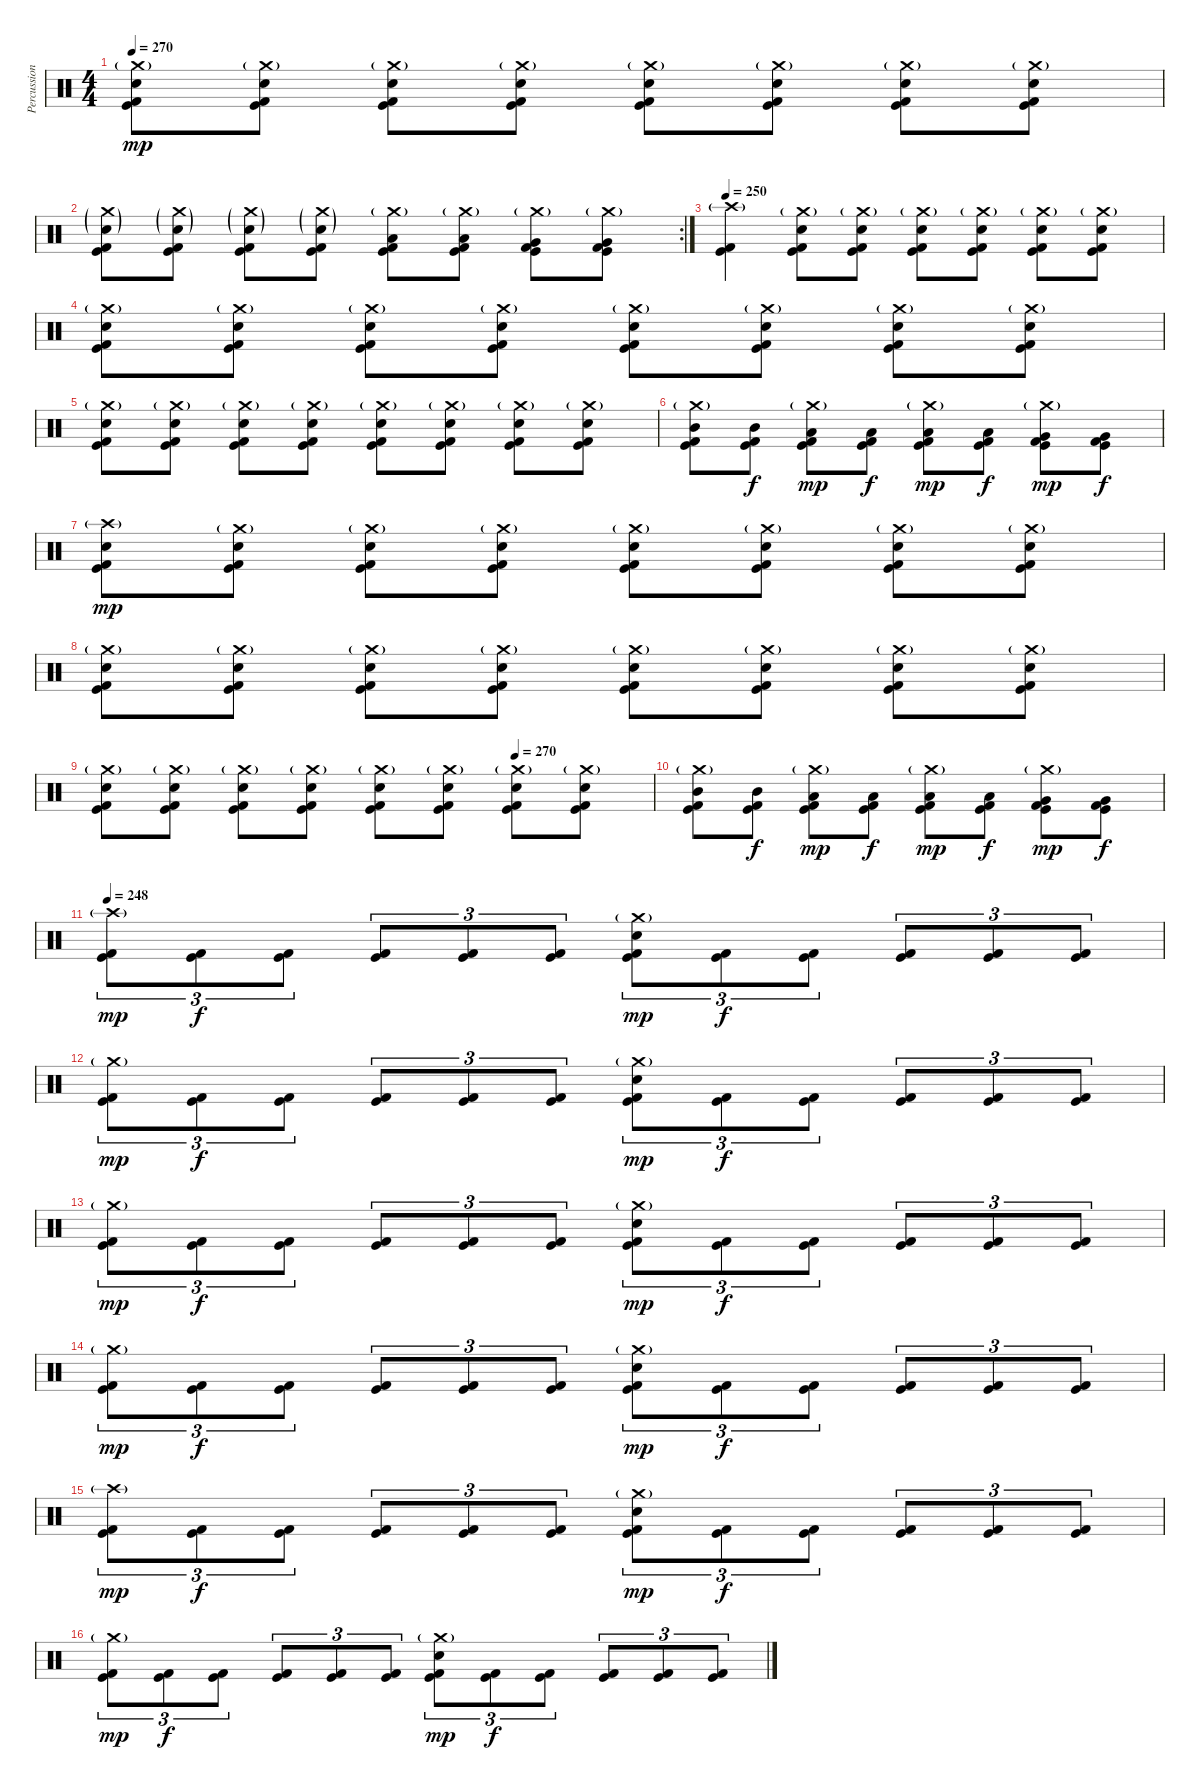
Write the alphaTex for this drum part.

\track ("Percussion" "Percussion") {instrument percussion}
\staff {score}
\articulation defaults
\ts (4 4)
\tempo 270
\clef neutral
\ks c
("Crash medium (hit)"{g} "Electric Snare (hit)" "Kick (hit)" "Kick (hit) 2").8{dy mp} ("Crash medium (hit)"{g} "Electric Snare (hit)" "Kick (hit)" "Kick (hit) 2").8 ("Crash medium (hit)"{g} "Electric Snare (hit)" "Kick (hit)" "Kick (hit) 2").8 ("Crash medium (hit)"{g} "Electric Snare (hit)" "Kick (hit)" "Kick (hit) 2").8 ("Crash medium (hit)"{g} "Electric Snare (hit)" "Kick (hit)" "Kick (hit) 2").8 ("Crash medium (hit)"{g} "Electric Snare (hit)" "Kick (hit)" "Kick (hit) 2").8 ("Crash medium (hit)"{g} "Electric Snare (hit)" "Kick (hit)" "Kick (hit) 2").8 ("Crash medium (hit)"{g} "Electric Snare (hit)" "Kick (hit)" "Kick (hit) 2").8 |
\rc 2
("Crash medium (hit)"{g} "Electric Snare (hit)"{g} "Kick (hit)" "Kick (hit) 2").8 ("Crash medium (hit)"{g} "Electric Snare (hit)"{g} "Kick (hit)" "Kick (hit) 2").8 ("Crash medium (hit)"{g} "Electric Snare (hit)"{g} "Kick (hit)" "Kick (hit) 2").8 ("Crash medium (hit)"{g} "Electric Snare (hit)"{g} "Kick (hit)" "Kick (hit) 2").8 ("Crash medium (hit)"{g} "Low Tom (hit)" "Kick (hit)" "Kick (hit) 2").8 ("Crash medium (hit)"{g} "Low Tom (hit)" "Kick (hit)" "Kick (hit) 2").8 ("Crash medium (hit)"{g} "Very Low Tom (hit)" "Kick (hit)" "Kick (hit) 2").8 ("Crash medium (hit)"{g} "Very Low Tom (hit)" "Kick (hit)" "Kick (hit) 2").8 |
\tempo 250
("Crash high (hit)"{g} "Kick (hit)" "Kick (hit) 2").4 ("Crash medium (hit)"{g} "Electric Snare (hit)" "Kick (hit)" "Kick (hit) 2").8 ("Crash medium (hit)"{g} "Electric Snare (hit)" "Kick (hit)" "Kick (hit) 2").8 ("Crash medium (hit)"{g} "Electric Snare (hit)" "Kick (hit)" "Kick (hit) 2").8 ("Crash medium (hit)"{g} "Electric Snare (hit)" "Kick (hit)" "Kick (hit) 2").8 ("Crash medium (hit)"{g} "Electric Snare (hit)" "Kick (hit)" "Kick (hit) 2").8 ("Crash medium (hit)"{g} "Electric Snare (hit)" "Kick (hit)" "Kick (hit) 2").8 |
("Crash medium (hit)"{g} "Electric Snare (hit)" "Kick (hit)" "Kick (hit) 2").8 ("Crash medium (hit)"{g} "Electric Snare (hit)" "Kick (hit)" "Kick (hit) 2").8 ("Crash medium (hit)"{g} "Electric Snare (hit)" "Kick (hit)" "Kick (hit) 2").8 ("Crash medium (hit)"{g} "Electric Snare (hit)" "Kick (hit)" "Kick (hit) 2").8 ("Crash medium (hit)"{g} "Electric Snare (hit)" "Kick (hit)" "Kick (hit) 2").8 ("Crash medium (hit)"{g} "Electric Snare (hit)" "Kick (hit)" "Kick (hit) 2").8 ("Crash medium (hit)"{g} "Electric Snare (hit)" "Kick (hit)" "Kick (hit) 2").8 ("Crash medium (hit)"{g} "Electric Snare (hit)" "Kick (hit)" "Kick (hit) 2").8 |
("Crash medium (hit)"{g} "Electric Snare (hit)" "Kick (hit)" "Kick (hit) 2").8 ("Crash medium (hit)"{g} "Electric Snare (hit)" "Kick (hit)" "Kick (hit) 2").8 ("Crash medium (hit)"{g} "Electric Snare (hit)" "Kick (hit)" "Kick (hit) 2").8 ("Crash medium (hit)"{g} "Electric Snare (hit)" "Kick (hit)" "Kick (hit) 2").8 ("Crash medium (hit)"{g} "Electric Snare (hit)" "Kick (hit)" "Kick (hit) 2").8 ("Crash medium (hit)"{g} "Electric Snare (hit)" "Kick (hit)" "Kick (hit) 2").8 ("Crash medium (hit)"{g} "Electric Snare (hit)" "Kick (hit)" "Kick (hit) 2").8 ("Crash medium (hit)"{g} "Electric Snare (hit)" "Kick (hit)" "Kick (hit) 2").8 |
("Crash medium (hit)"{g} "Mid Tom (hit)" "Kick (hit)" "Kick (hit) 2").8 ("Mid Tom (hit)" "Kick (hit)" "Kick (hit) 2").8{dy f} ("Crash medium (hit)"{g} "Low Tom (hit)" "Kick (hit)" "Kick (hit) 2").8{dy mp} ("Low Tom (hit)" "Kick (hit)" "Kick (hit) 2").8{dy f} ("Crash medium (hit)"{g} "Low Floor Tom (hit)" "Kick (hit)" "Kick (hit) 2").8{dy mp} ("Low Floor Tom (hit)" "Kick (hit)" "Kick (hit) 2").8{dy f} ("Crash medium (hit)"{g} "Very Low Tom (hit)" "Kick (hit)" "Kick (hit) 2").8{dy mp} ("Very Low Tom (hit)" "Kick (hit)" "Kick (hit) 2").8{dy f} |
("Crash high (hit)"{g} "Electric Snare (hit)" "Kick (hit)" "Kick (hit) 2").8{dy mp} ("Crash medium (hit)"{g} "Electric Snare (hit)" "Kick (hit)" "Kick (hit) 2").8 ("Crash medium (hit)"{g} "Electric Snare (hit)" "Kick (hit)" "Kick (hit) 2").8 ("Crash medium (hit)"{g} "Electric Snare (hit)" "Kick (hit)" "Kick (hit) 2").8 ("Crash medium (hit)"{g} "Electric Snare (hit)" "Kick (hit)" "Kick (hit) 2").8 ("Crash medium (hit)"{g} "Electric Snare (hit)" "Kick (hit)" "Kick (hit) 2").8 ("Crash medium (hit)"{g} "Electric Snare (hit)" "Kick (hit)" "Kick (hit) 2").8 ("Crash medium (hit)"{g} "Electric Snare (hit)" "Kick (hit)" "Kick (hit) 2").8 |
("Crash medium (hit)"{g} "Electric Snare (hit)" "Kick (hit)" "Kick (hit) 2").8 ("Crash medium (hit)"{g} "Electric Snare (hit)" "Kick (hit)" "Kick (hit) 2").8 ("Crash medium (hit)"{g} "Electric Snare (hit)" "Kick (hit)" "Kick (hit) 2").8 ("Crash medium (hit)"{g} "Electric Snare (hit)" "Kick (hit)" "Kick (hit) 2").8 ("Crash medium (hit)"{g} "Electric Snare (hit)" "Kick (hit)" "Kick (hit) 2").8 ("Crash medium (hit)"{g} "Electric Snare (hit)" "Kick (hit)" "Kick (hit) 2").8 ("Crash medium (hit)"{g} "Electric Snare (hit)" "Kick (hit)" "Kick (hit) 2").8 ("Crash medium (hit)"{g} "Electric Snare (hit)" "Kick (hit)" "Kick (hit) 2").8 |
\tempo (270 0.75)
("Crash medium (hit)"{g} "Electric Snare (hit)" "Kick (hit)" "Kick (hit) 2").8 ("Crash medium (hit)"{g} "Electric Snare (hit)" "Kick (hit)" "Kick (hit) 2").8 ("Crash medium (hit)"{g} "Electric Snare (hit)" "Kick (hit)" "Kick (hit) 2").8 ("Crash medium (hit)"{g} "Electric Snare (hit)" "Kick (hit)" "Kick (hit) 2").8 ("Crash medium (hit)"{g} "Electric Snare (hit)" "Kick (hit)" "Kick (hit) 2").8 ("Crash medium (hit)"{g} "Electric Snare (hit)" "Kick (hit)" "Kick (hit) 2").8 ("Crash medium (hit)"{g} "Electric Snare (hit)" "Kick (hit)" "Kick (hit) 2").8 ("Crash medium (hit)"{g} "Electric Snare (hit)" "Kick (hit)" "Kick (hit) 2").8 |
("Crash medium (hit)"{g} "Mid Tom (hit)" "Kick (hit)" "Kick (hit) 2").8 ("Mid Tom (hit)" "Kick (hit)" "Kick (hit) 2").8{dy f} ("Crash medium (hit)"{g} "Low Tom (hit)" "Kick (hit)" "Kick (hit) 2").8{dy mp} ("Low Tom (hit)" "Kick (hit)" "Kick (hit) 2").8{dy f} ("Crash medium (hit)"{g} "Low Floor Tom (hit)" "Kick (hit)" "Kick (hit) 2").8{dy mp} ("Low Floor Tom (hit)" "Kick (hit)" "Kick (hit) 2").8{dy f} ("Crash medium (hit)"{g} "Very Low Tom (hit)" "Kick (hit)" "Kick (hit) 2").8{dy mp} ("Very Low Tom (hit)" "Kick (hit)" "Kick (hit) 2").8{dy f} |
\tempo 248
("Crash high (hit)"{g} "Kick (hit)" "Kick (hit) 2").8{tu (3 2) dy mp} ("Kick (hit)" "Kick (hit) 2").8{tu (3 2) dy f} ("Kick (hit)" "Kick (hit) 2").8{tu (3 2)} ("Kick (hit)" "Kick (hit) 2").8{tu (3 2)} ("Kick (hit)" "Kick (hit) 2").8{tu (3 2)} ("Kick (hit)" "Kick (hit) 2").8{tu (3 2)} ("Crash medium (hit)"{g} "Electric Snare (hit)" "Kick (hit)" "Kick (hit) 2").8{tu (3 2) dy mp} ("Kick (hit)" "Kick (hit) 2").8{tu (3 2) dy f} ("Kick (hit)" "Kick (hit) 2").8{tu (3 2)} ("Kick (hit)" "Kick (hit) 2").8{tu (3 2)} ("Kick (hit)" "Kick (hit) 2").8{tu (3 2)} ("Kick (hit)" "Kick (hit) 2").8{tu (3 2)} |
("Crash medium (hit)"{g} "Kick (hit)" "Kick (hit) 2").8{tu (3 2) dy mp} ("Kick (hit)" "Kick (hit) 2").8{tu (3 2) dy f} ("Kick (hit)" "Kick (hit) 2").8{tu (3 2)} ("Kick (hit)" "Kick (hit) 2").8{tu (3 2)} ("Kick (hit)" "Kick (hit) 2").8{tu (3 2)} ("Kick (hit)" "Kick (hit) 2").8{tu (3 2)} ("Crash medium (hit)"{g} "Electric Snare (hit)" "Kick (hit)" "Kick (hit) 2").8{tu (3 2) dy mp} ("Kick (hit)" "Kick (hit) 2").8{tu (3 2) dy f} ("Kick (hit)" "Kick (hit) 2").8{tu (3 2)} ("Kick (hit)" "Kick (hit) 2").8{tu (3 2)} ("Kick (hit)" "Kick (hit) 2").8{tu (3 2)} ("Kick (hit)" "Kick (hit) 2").8{tu (3 2)} |
("Crash medium (hit)"{g} "Kick (hit)" "Kick (hit) 2").8{tu (3 2) dy mp} ("Kick (hit)" "Kick (hit) 2").8{tu (3 2) dy f} ("Kick (hit)" "Kick (hit) 2").8{tu (3 2)} ("Kick (hit)" "Kick (hit) 2").8{tu (3 2)} ("Kick (hit)" "Kick (hit) 2").8{tu (3 2)} ("Kick (hit)" "Kick (hit) 2").8{tu (3 2)} ("Crash medium (hit)"{g} "Electric Snare (hit)" "Kick (hit)" "Kick (hit) 2").8{tu (3 2) dy mp} ("Kick (hit)" "Kick (hit) 2").8{tu (3 2) dy f} ("Kick (hit)" "Kick (hit) 2").8{tu (3 2)} ("Kick (hit)" "Kick (hit) 2").8{tu (3 2)} ("Kick (hit)" "Kick (hit) 2").8{tu (3 2)} ("Kick (hit)" "Kick (hit) 2").8{tu (3 2)} |
("Crash medium (hit)"{g} "Kick (hit)" "Kick (hit) 2").8{tu (3 2) dy mp} ("Kick (hit)" "Kick (hit) 2").8{tu (3 2) dy f} ("Kick (hit)" "Kick (hit) 2").8{tu (3 2)} ("Kick (hit)" "Kick (hit) 2").8{tu (3 2)} ("Kick (hit)" "Kick (hit) 2").8{tu (3 2)} ("Kick (hit)" "Kick (hit) 2").8{tu (3 2)} ("Crash medium (hit)"{g} "Electric Snare (hit)" "Kick (hit)" "Kick (hit) 2").8{tu (3 2) dy mp} ("Kick (hit)" "Kick (hit) 2").8{tu (3 2) dy f} ("Kick (hit)" "Kick (hit) 2").8{tu (3 2)} ("Kick (hit)" "Kick (hit) 2").8{tu (3 2)} ("Kick (hit)" "Kick (hit) 2").8{tu (3 2)} ("Kick (hit)" "Kick (hit) 2").8{tu (3 2)} |
("Crash high (hit)"{g} "Kick (hit)" "Kick (hit) 2").8{tu (3 2) dy mp} ("Kick (hit)" "Kick (hit) 2").8{tu (3 2) dy f} ("Kick (hit)" "Kick (hit) 2").8{tu (3 2)} ("Kick (hit)" "Kick (hit) 2").8{tu (3 2)} ("Kick (hit)" "Kick (hit) 2").8{tu (3 2)} ("Kick (hit)" "Kick (hit) 2").8{tu (3 2)} ("Crash medium (hit)"{g} "Electric Snare (hit)" "Kick (hit)" "Kick (hit) 2").8{tu (3 2) dy mp} ("Kick (hit)" "Kick (hit) 2").8{tu (3 2) dy f} ("Kick (hit)" "Kick (hit) 2").8{tu (3 2)} ("Kick (hit)" "Kick (hit) 2").8{tu (3 2)} ("Kick (hit)" "Kick (hit) 2").8{tu (3 2)} ("Kick (hit)" "Kick (hit) 2").8{tu (3 2)} |
("Crash medium (hit)"{g} "Kick (hit)" "Kick (hit) 2").8{tu (3 2) dy mp} ("Kick (hit)" "Kick (hit) 2").8{tu (3 2) dy f} ("Kick (hit)" "Kick (hit) 2").8{tu (3 2)} ("Kick (hit)" "Kick (hit) 2").8{tu (3 2)} ("Kick (hit)" "Kick (hit) 2").8{tu (3 2)} ("Kick (hit)" "Kick (hit) 2").8{tu (3 2)} ("Crash medium (hit)"{g} "Electric Snare (hit)" "Kick (hit)" "Kick (hit) 2").8{tu (3 2) dy mp} ("Kick (hit)" "Kick (hit) 2").8{tu (3 2) dy f} ("Kick (hit)" "Kick (hit) 2").8{tu (3 2)} ("Kick (hit)" "Kick (hit) 2").8{tu (3 2)} ("Kick (hit)" "Kick (hit) 2").8{tu (3 2)} ("Kick (hit)" "Kick (hit) 2").8{tu (3 2)}
